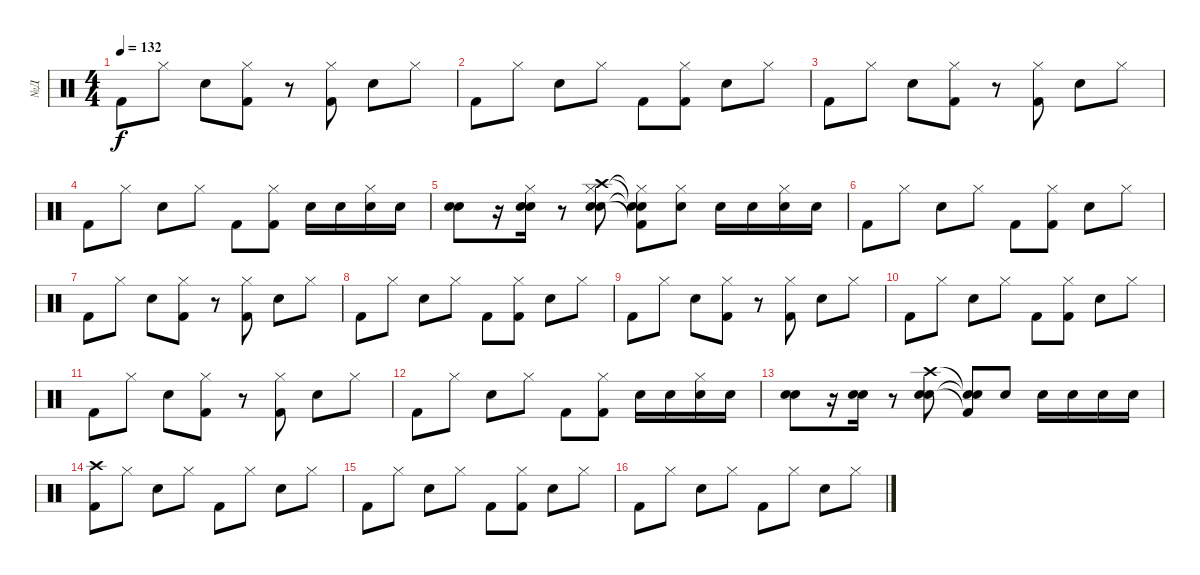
\track ("№Д" "№Д") {instrument percussion}
\staff {score}
\articulation defaults
\ts (4 4)
\tempo 132
\clef neutral
\ks c "Kick (hit) 2".8{dy f} "Hi-Hat (closed)".8 "Snare (hit) 2".8
("Hi-Hat (closed)" "Kick (hit) 2").8 r.8 ("Hi-Hat (closed)" "Kick (hit) 2").8 "Snare (hit) 2".8 "Hi-Hat (closed)".8 |
"Kick (hit) 2".8 "Hi-Hat (closed)".8 "Snare (hit) 2".8 "Hi-Hat (closed)".8 "Kick (hit) 2".8 ("Hi-Hat (closed)" "Kick (hit) 2").8 "Snare (hit) 2".8 "Hi-Hat (closed)".8 |
"Kick (hit) 2".8 "Hi-Hat (closed)".8 "Snare (hit) 2".8 ("Hi-Hat (closed)" "Kick (hit) 2").8 r.8 ("Hi-Hat (closed)" "Kick (hit) 2").8 "Snare (hit) 2".8 "Hi-Hat (closed)".8 |
"Kick (hit) 2".8 "Hi-Hat (closed)".8 "Snare (hit) 2".8 "Hi-Hat (closed)".8 "Kick (hit) 2".8 ("Hi-Hat (closed)" "Kick (hit) 2").8 "Snare (hit) 2".16 "Snare (hit) 2".16 ("Hi-Hat (closed)" "Snare (hit) 2").16 "Snare (hit) 2".16 |
("Snare (hit) 2" "Electric Snare (hit)").8 r.16 ("Hi-Hat (closed)" "Snare (hit) 2" "Electric Snare (hit)").16 r.8 ("Crash high (hit)" "Hi-Hat (closed)" "Snare (hit) 2" "Electric Snare (hit)").8 ("Snare (hit)"{t} "Hi-Hat (closed)"{t} "Snare (hit)"{t} "Kick (hit) 2"{t}).8 ("Hi-Hat (closed)" "Snare (hit) 2").8 "Snare (hit) 2".16 "Snare (hit) 2".16 ("Hi-Hat (closed)" "Snare (hit) 2").16 "Snare (hit) 2".16 |
"Kick (hit) 2".8 "Hi-Hat (closed)".8 "Snare (hit) 2".8 "Hi-Hat (closed)".8 "Kick (hit) 2".8 ("Hi-Hat (closed)" "Kick (hit) 2").8 "Snare (hit) 2".8 "Hi-Hat (closed)".8 |
"Kick (hit) 2".8 "Hi-Hat (closed)".8 "Snare (hit) 2".8 ("Hi-Hat (closed)" "Kick (hit) 2").8 r.8 ("Hi-Hat (closed)" "Kick (hit) 2").8 "Snare (hit) 2".8 "Hi-Hat (closed)".8 |
"Kick (hit) 2".8 "Hi-Hat (closed)".8 "Snare (hit) 2".8 "Hi-Hat (closed)".8 "Kick (hit) 2".8 ("Hi-Hat (closed)" "Kick (hit) 2").8 "Snare (hit) 2".8 "Hi-Hat (closed)".8 |
"Kick (hit) 2".8 "Hi-Hat (closed)".8 "Snare (hit) 2".8 ("Hi-Hat (closed)" "Kick (hit) 2").8 r.8 ("Hi-Hat (closed)" "Kick (hit) 2").8 "Snare (hit) 2".8 "Hi-Hat (closed)".8 |
"Kick (hit) 2".8 "Hi-Hat (closed)".8 "Snare (hit) 2".8 "Hi-Hat (closed)".8 "Kick (hit) 2".8 ("Hi-Hat (closed)" "Kick (hit) 2").8 "Snare (hit) 2".8 "Hi-Hat (closed)".8 |
"Kick (hit) 2".8 "Hi-Hat (closed)".8 "Snare (hit) 2".8 ("Hi-Hat (closed)" "Kick (hit) 2").8 r.8 ("Hi-Hat (closed)" "Kick (hit) 2").8 "Snare (hit) 2".8 "Hi-Hat (closed)".8 |
"Kick (hit) 2".8 "Hi-Hat (closed)".8 "Snare (hit) 2".8 "Hi-Hat (closed)".8 "Kick (hit) 2".8 ("Hi-Hat (closed)" "Kick (hit) 2").8 "Snare (hit) 2".16 "Snare (hit) 2".16 ("Hi-Hat (closed)" "Snare (hit) 2").16 "Snare (hit) 2".16 |
("Snare (hit) 2" "Electric Snare (hit)").8 r.16 ("Snare (hit) 2" "Electric Snare (hit)").16 r.8 ("Crash high (hit)" "Snare (hit) 2" "Electric Snare (hit)").8 ("Snare (hit)"{t} "Snare (hit)"{t} "Kick (hit) 2"{t}).8 "Snare (hit) 2".8 "Snare (hit) 2".16 "Snare (hit) 2".16 "Snare (hit) 2".16 "Snare (hit) 2".16 |
("Crash high (hit)" "Kick (hit) 2").8 "Hi-Hat (closed)".8 "Snare (hit) 2".8 "Hi-Hat (closed)".8 "Kick (hit) 2".8 "Hi-Hat (closed)".8 "Snare (hit) 2".8 "Hi-Hat (closed)".8 |
"Kick (hit) 2".8 "Hi-Hat (closed)".8 "Snare (hit) 2".8 "Hi-Hat (closed)".8 "Kick (hit) 2".8 ("Hi-Hat (closed)" "Kick (hit) 2").8 "Snare (hit) 2".8 "Hi-Hat (closed)".8 |
"Kick (hit) 2".8 "Hi-Hat (closed)".8 "Snare (hit) 2".8 "Hi-Hat (closed)".8 "Kick (hit) 2".8 "Hi-Hat (closed)".8 "Snare (hit) 2".8 "Hi-Hat (closed)".8
